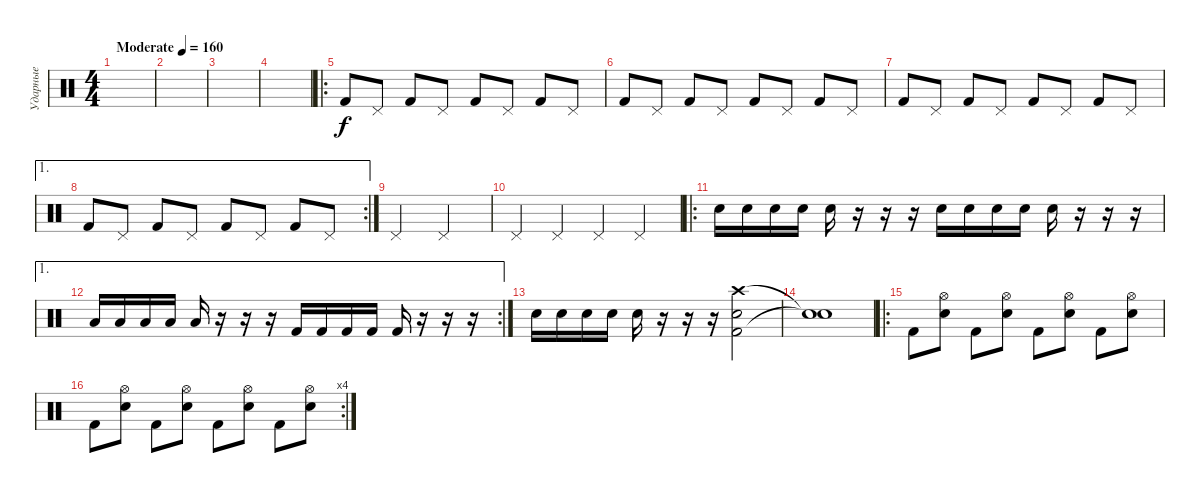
\track ("Ударные" "Ударные") {instrument percussion}
\staff {score}
\articulation defaults
\ts (4 4)
\tempo (160 "Moderate")
\clef neutral
\ks c
|
|
|
|
\ro "Kick (hit) 2".8 "Pedal Hi-Hat (hit)".8 "Kick (hit) 2".8 "Pedal Hi-Hat (hit)".8 "Kick (hit) 2".8 "Pedal Hi-Hat (hit)".8 "Kick (hit) 2".8 "Pedal Hi-Hat (hit)".8
|
"Kick (hit) 2".8 "Pedal Hi-Hat (hit)".8 "Kick (hit) 2".8 "Pedal Hi-Hat (hit)".8 "Kick (hit) 2".8 "Pedal Hi-Hat (hit)".8 "Kick (hit) 2".8 "Pedal Hi-Hat (hit)".8 |
"Kick (hit) 2".8 "Pedal Hi-Hat (hit)".8 "Kick (hit) 2".8 "Pedal Hi-Hat (hit)".8 "Kick (hit) 2".8 "Pedal Hi-Hat (hit)".8 "Kick (hit) 2".8 "Pedal Hi-Hat (hit)".8 |
\ae 1
\rc 2 "Kick (hit) 2".8 "Pedal Hi-Hat (hit)".8 "Kick (hit) 2".8 "Pedal Hi-Hat (hit)".8 "Kick (hit) 2".8 "Pedal Hi-Hat (hit)".8 "Kick (hit) 2".8 "Pedal Hi-Hat (hit)".8
|
"Pedal Hi-Hat (hit)".2 "Pedal Hi-Hat (hit)".2 |
"Pedal Hi-Hat (hit)".4 "Pedal Hi-Hat (hit)".4 "Pedal Hi-Hat (hit)".4 "Pedal Hi-Hat (hit)".4 |
\ro "Electric Snare (hit)".16 "Electric Snare (hit)".16 "Electric Snare (hit)".16 "Electric Snare (hit)".16 "Electric Snare (hit)".16
r.16 r.16 r.16 "Snare (hit) 2".16 "Snare (hit) 2".16 "Snare (hit) 2".16 "Snare (hit) 2".16 "Snare (hit) 2".16 r.16 r.16 r.16 |
\ae 1
\rc 2 "Low Floor Tom (hit)".16 "Low Floor Tom (hit)".16 "Low Floor Tom (hit)".16 "Low Floor Tom (hit)".16 "Low Floor Tom (hit)".16
r.16 r.16 r.16 "Kick (hit) 2".16 "Kick (hit) 2".16 "Kick (hit) 2".16 "Kick (hit) 2".16 "Kick (hit) 2".16 r.16 r.16 r.16 |
"Electric Snare (hit)".16 "Electric Snare (hit)".16 "Electric Snare (hit)".16 "Electric Snare (hit)".16 "Electric Snare (hit)".16 r.16 r.16 r.16 ("Kick (hit) 2" "Crash high (hit)" "Electric Snare (hit)").2 |
("Snare (hit)"{t} "Snare (hit)"{t}).1 |
\ro "Kick (hit) 2".8
("Hi-Hat (open)" "Snare (hit) 2").8 "Kick (hit) 2".8 ("Hi-Hat (open)" "Snare (hit) 2").8 "Kick (hit) 2".8 ("Hi-Hat (open)" "Snare (hit) 2").8 "Kick (hit) 2".8 ("Hi-Hat (open)" "Snare (hit) 2").8 |
\rc 4 "Kick (hit) 2".8
("Hi-Hat (open)" "Snare (hit) 2").8 "Kick (hit) 2".8 ("Hi-Hat (open)" "Snare (hit) 2").8 "Kick (hit) 2".8 ("Hi-Hat (open)" "Snare (hit) 2").8 "Kick (hit) 2".8 ("Hi-Hat (open)" "Snare (hit) 2").8
